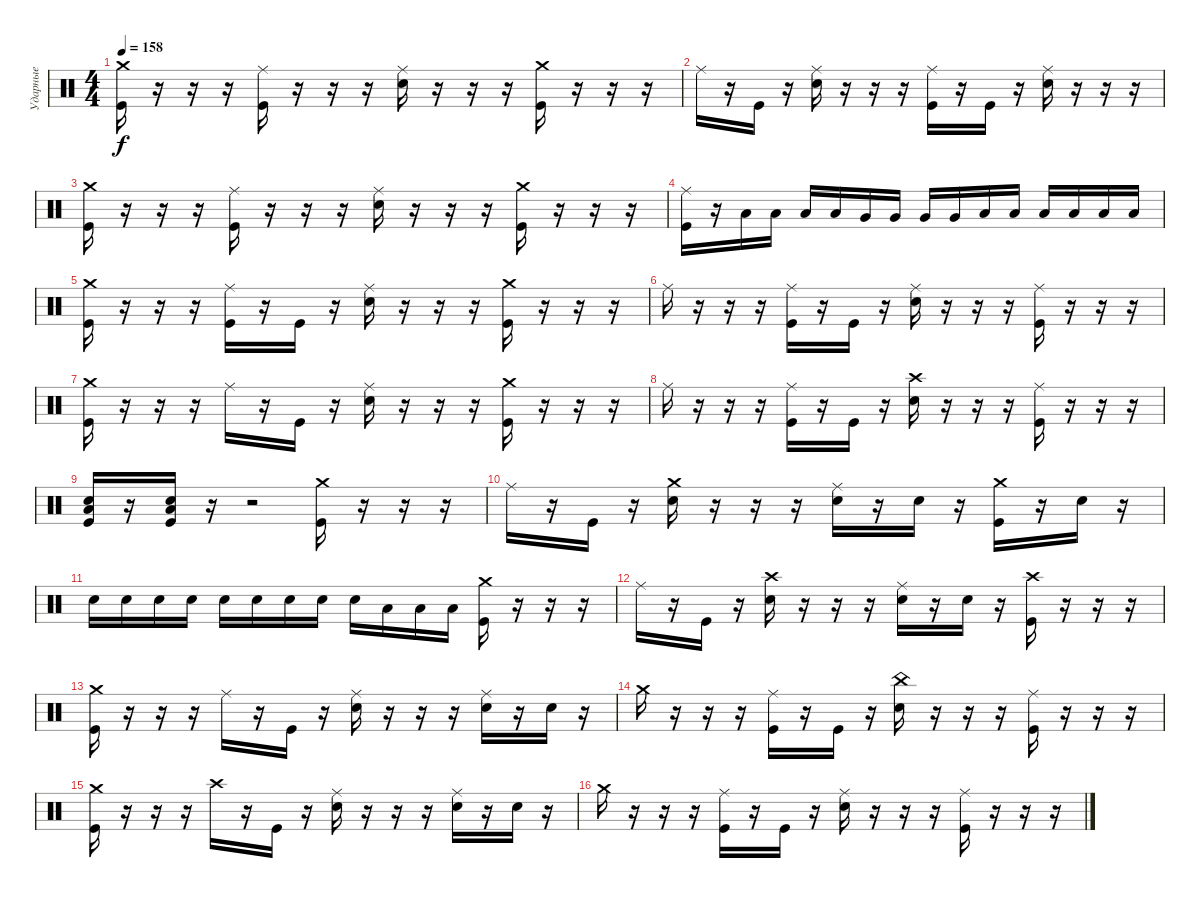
\track ("Ударные" "Ударные") {instrument percussion}
\staff {score}
\articulation defaults
\ts (4 4)
\tempo 158
\clef neutral
\ks c
("Crash medium (hit)" "Kick (hit)").16{dy f} r.16 r.16 r.16 ("Ride (middle)" "Kick (hit)").16 r.16 r.16 r.16 ("Ride (middle)" "Electric Snare (hit)").16 r.16 r.16 r.16 ("Crash medium (hit)" "Kick (hit)").16 r.16 r.16 r.16 |
"Ride (middle)".16 r.16 "Kick (hit)".16 r.16 ("Ride (middle)" "Electric Snare (hit)").16 r.16 r.16 r.16 ("Ride (middle)" "Kick (hit)").16 r.16 "Kick (hit)".16 r.16 ("Ride (middle)" "Electric Snare (hit)").16 r.16 r.16 r.16 |
("Crash medium (hit)" "Kick (hit)").16 r.16 r.16 r.16 ("Ride (middle)" "Kick (hit)").16 r.16 r.16 r.16 ("Ride (middle)" "Electric Snare (hit)").16 r.16 r.16 r.16 ("Crash medium (hit)" "Kick (hit)").16 r.16 r.16 r.16 |
("Ride (middle)" "Kick (hit)").16 r.16 "Low Tom (hit)".16 "Low Tom (hit)".16 "Low Tom (hit)".16 "Low Tom (hit)".16 "Very Low Tom (hit)".16 "Very Low Tom (hit)".16 "Very Low Tom (hit)".16 "Very Low Tom (hit)".16 "Low Floor Tom (hit)".16 "Low Floor Tom (hit)".16 "Low Floor Tom (hit)".16 "Low Floor Tom (hit)".16 "Low Floor Tom (hit)".16 "Low Floor Tom (hit)".16 |
("Crash medium (hit)" "Kick (hit)").16 r.16 r.16 r.16 ("Ride (middle)" "Kick (hit)").16 r.16 "Kick (hit)".16 r.16 ("Ride (middle)" "Electric Snare (hit)").16 r.16 r.16 r.16 ("Crash medium (hit)" "Kick (hit)").16 r.16 r.16 r.16 |
"Ride (middle)".16 r.16 r.16 r.16 ("Ride (middle)" "Kick (hit)").16 r.16 "Kick (hit)".16 r.16 ("Ride (middle)" "Electric Snare (hit)").16 r.16 r.16 r.16 ("Ride (middle)" "Kick (hit)").16 r.16 r.16 r.16 |
("Crash medium (hit)" "Kick (hit)").16 r.16 r.16 r.16 "Ride (middle)".16 r.16 "Kick (hit)".16 r.16 ("Ride (middle)" "Electric Snare (hit)").16 r.16 r.16 r.16 ("Crash medium (hit)" "Kick (hit)").16 r.16 r.16 r.16 |
"Ride (middle)".16 r.16 r.16 r.16 ("Ride (middle)" "Kick (hit)").16 r.16 "Kick (hit)".16 r.16 ("Crash high (hit)" "Electric Snare (hit)").16 r.16 r.16 r.16 ("Ride (middle)" "Kick (hit)").16 r.16 r.16 r.16 |
("Low Floor Tom (hit)" "Electric Snare (hit)" "Kick (hit)").16 r.16 ("Low Floor Tom (hit)" "Electric Snare (hit)" "Kick (hit)").16 r.16 r.2 ("Crash medium (hit)" "Kick (hit)").16 r.16 r.16 r.16 |
"Ride (middle)".16 r.16 "Kick (hit)".16 r.16 ("Crash medium (hit)" "Electric Snare (hit)").16 r.16 r.16 r.16 ("Ride (middle)" "Electric Snare (hit)").16 r.16 "Electric Snare (hit)".16 r.16 ("Crash medium (hit)" "Kick (hit)").16 r.16 "Electric Snare (hit)".16 r.16 |
"Electric Snare (hit)".16 "Electric Snare (hit)".16 "Electric Snare (hit)".16 "Electric Snare (hit)".16 "Electric Snare (hit)".16 "Electric Snare (hit)".16 "Electric Snare (hit)".16 "Electric Snare (hit)".16 "Electric Snare (hit)".16 "Low Floor Tom (hit)".16 "Low Floor Tom (hit)".16 "Low Floor Tom (hit)".16 ("Crash medium (hit)" "Kick (hit)").16 r.16 r.16 r.16 |
"Ride (middle)".16 r.16 "Kick (hit)".16 r.16 ("Crash high (hit)" "Electric Snare (hit)").16 r.16 r.16 r.16 ("Ride (middle)" "Electric Snare (hit)").16 r.16 "Electric Snare (hit)".16 r.16 ("Crash high (hit)" "Kick (hit)").16 r.16 r.16 r.16 |
("Crash medium (hit)" "Kick (hit)").16 r.16 r.16 r.16 "Ride (middle)".16 r.16 "Kick (hit)".16 r.16 ("Ride (middle)" "Electric Snare (hit)").16 r.16 r.16 r.16 ("Ride (middle)" "Electric Snare (hit)").16 r.16 "Electric Snare (hit)".16 r.16 |
"Crash medium (hit)".16 r.16 r.16 r.16 ("Ride (middle)" "Kick (hit)").16 r.16 "Kick (hit)".16 r.16 ("China (hit)" "Electric Snare (hit)").16 r.16 r.16 r.16 ("Ride (middle)" "Kick (hit)").16 r.16 r.16 r.16 |
("Crash medium (hit)" "Kick (hit)").16 r.16 r.16 r.16 "Crash high (hit)".16 r.16 "Kick (hit)".16 r.16 ("Ride (middle)" "Electric Snare (hit)").16 r.16 r.16 r.16 ("Ride (middle)" "Electric Snare (hit)").16 r.16 "Electric Snare (hit)".16 r.16 |
"Crash medium (hit)".16 r.16 r.16 r.16 ("Ride (middle)" "Kick (hit)").16 r.16 "Kick (hit)".16 r.16 ("Ride (middle)" "Electric Snare (hit)").16 r.16 r.16 r.16 ("Ride (middle)" "Kick (hit)").16 r.16 r.16 r.16
